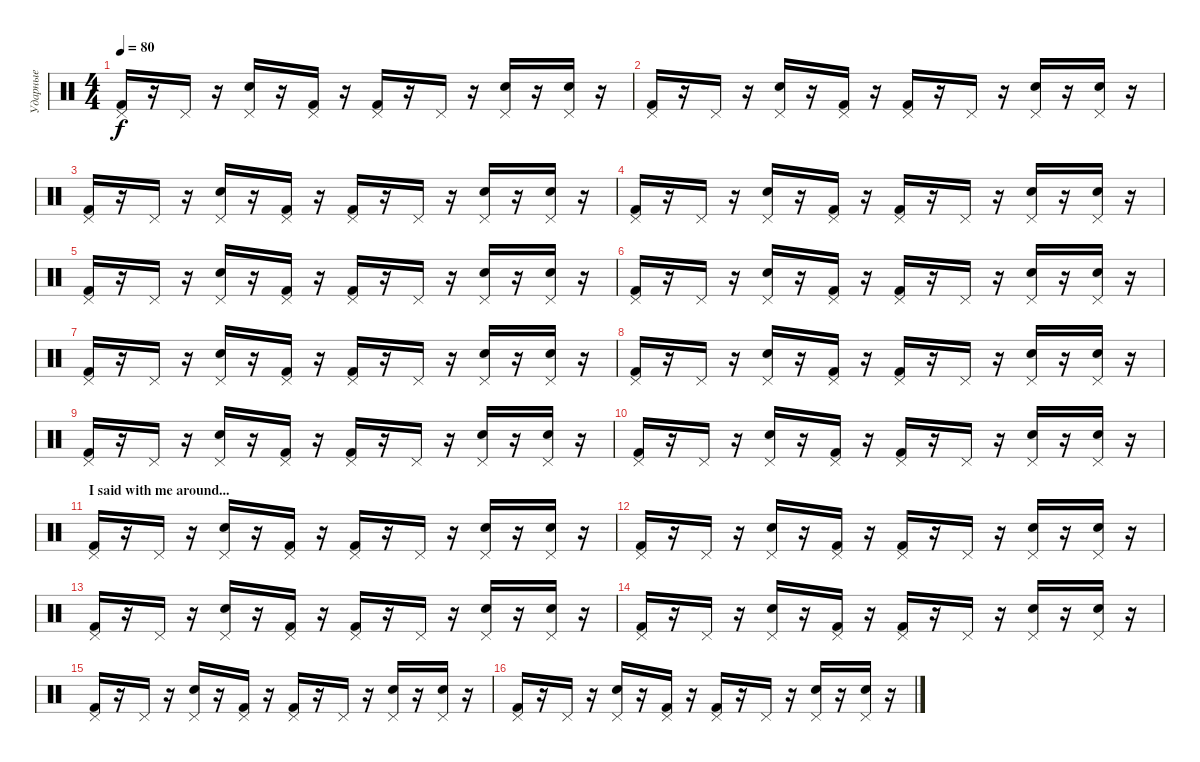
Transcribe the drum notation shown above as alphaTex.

\track ("Ударные" "Ударные") {instrument percussion}
\staff {score}
\articulation defaults
\ts (4 4)
\tempo 80
\clef neutral
\ks c
("Pedal Hi-Hat (hit)" "Kick (hit) 2").16{dy f} r.16 "Pedal Hi-Hat (hit)".16 r.16 ("Pedal Hi-Hat (hit)" "Snare (hit) 2").16 r.16 ("Pedal Hi-Hat (hit)" "Kick (hit) 2").16 r.16 ("Pedal Hi-Hat (hit)" "Kick (hit) 2").16 r.16 "Pedal Hi-Hat (hit)".16 r.16 ("Pedal Hi-Hat (hit)" "Snare (hit) 2").16 r.16 ("Pedal Hi-Hat (hit)" "Snare (hit) 2").16 r.16 |
("Pedal Hi-Hat (hit)" "Kick (hit) 2").16 r.16 "Pedal Hi-Hat (hit)".16 r.16 ("Pedal Hi-Hat (hit)" "Snare (hit) 2").16 r.16 ("Pedal Hi-Hat (hit)" "Kick (hit) 2").16 r.16 ("Pedal Hi-Hat (hit)" "Kick (hit) 2").16 r.16 "Pedal Hi-Hat (hit)".16 r.16 ("Pedal Hi-Hat (hit)" "Snare (hit) 2").16 r.16 ("Pedal Hi-Hat (hit)" "Snare (hit) 2").16 r.16 |
("Pedal Hi-Hat (hit)" "Kick (hit) 2").16 r.16 "Pedal Hi-Hat (hit)".16 r.16 ("Pedal Hi-Hat (hit)" "Snare (hit) 2").16 r.16 ("Pedal Hi-Hat (hit)" "Kick (hit) 2").16 r.16 ("Pedal Hi-Hat (hit)" "Kick (hit) 2").16 r.16 "Pedal Hi-Hat (hit)".16 r.16 ("Pedal Hi-Hat (hit)" "Snare (hit) 2").16 r.16 ("Pedal Hi-Hat (hit)" "Snare (hit) 2").16 r.16 |
("Pedal Hi-Hat (hit)" "Kick (hit) 2").16 r.16 "Pedal Hi-Hat (hit)".16 r.16 ("Pedal Hi-Hat (hit)" "Snare (hit) 2").16 r.16 ("Pedal Hi-Hat (hit)" "Kick (hit) 2").16 r.16 ("Pedal Hi-Hat (hit)" "Kick (hit) 2").16 r.16 "Pedal Hi-Hat (hit)".16 r.16 ("Pedal Hi-Hat (hit)" "Snare (hit) 2").16 r.16 ("Pedal Hi-Hat (hit)" "Snare (hit) 2").16 r.16 |
("Pedal Hi-Hat (hit)" "Kick (hit) 2").16 r.16 "Pedal Hi-Hat (hit)".16 r.16 ("Pedal Hi-Hat (hit)" "Snare (hit) 2").16 r.16 ("Pedal Hi-Hat (hit)" "Kick (hit) 2").16 r.16 ("Pedal Hi-Hat (hit)" "Kick (hit) 2").16 r.16 "Pedal Hi-Hat (hit)".16 r.16 ("Pedal Hi-Hat (hit)" "Snare (hit) 2").16 r.16 ("Pedal Hi-Hat (hit)" "Snare (hit) 2").16 r.16 |
("Pedal Hi-Hat (hit)" "Kick (hit) 2").16 r.16 "Pedal Hi-Hat (hit)".16 r.16 ("Pedal Hi-Hat (hit)" "Snare (hit) 2").16 r.16 ("Pedal Hi-Hat (hit)" "Kick (hit) 2").16 r.16 ("Pedal Hi-Hat (hit)" "Kick (hit) 2").16 r.16 "Pedal Hi-Hat (hit)".16 r.16 ("Pedal Hi-Hat (hit)" "Snare (hit) 2").16 r.16 ("Pedal Hi-Hat (hit)" "Snare (hit) 2").16 r.16 |
("Pedal Hi-Hat (hit)" "Kick (hit) 2").16 r.16 "Pedal Hi-Hat (hit)".16 r.16 ("Pedal Hi-Hat (hit)" "Snare (hit) 2").16 r.16 ("Pedal Hi-Hat (hit)" "Kick (hit) 2").16 r.16 ("Pedal Hi-Hat (hit)" "Kick (hit) 2").16 r.16 "Pedal Hi-Hat (hit)".16 r.16 ("Pedal Hi-Hat (hit)" "Snare (hit) 2").16 r.16 ("Pedal Hi-Hat (hit)" "Snare (hit) 2").16 r.16 |
("Pedal Hi-Hat (hit)" "Kick (hit) 2").16 r.16 "Pedal Hi-Hat (hit)".16 r.16 ("Pedal Hi-Hat (hit)" "Snare (hit) 2").16 r.16 ("Pedal Hi-Hat (hit)" "Kick (hit) 2").16 r.16 ("Pedal Hi-Hat (hit)" "Kick (hit) 2").16 r.16 "Pedal Hi-Hat (hit)".16 r.16 ("Pedal Hi-Hat (hit)" "Snare (hit) 2").16 r.16 ("Pedal Hi-Hat (hit)" "Snare (hit) 2").16 r.16 |
("Pedal Hi-Hat (hit)" "Kick (hit) 2").16 r.16 "Pedal Hi-Hat (hit)".16 r.16 ("Pedal Hi-Hat (hit)" "Snare (hit) 2").16 r.16 ("Pedal Hi-Hat (hit)" "Kick (hit) 2").16 r.16 ("Pedal Hi-Hat (hit)" "Kick (hit) 2").16 r.16 "Pedal Hi-Hat (hit)".16 r.16 ("Pedal Hi-Hat (hit)" "Snare (hit) 2").16 r.16 ("Pedal Hi-Hat (hit)" "Snare (hit) 2").16 r.16 |
("Pedal Hi-Hat (hit)" "Kick (hit) 2").16 r.16 "Pedal Hi-Hat (hit)".16 r.16 ("Pedal Hi-Hat (hit)" "Snare (hit) 2").16 r.16 ("Pedal Hi-Hat (hit)" "Kick (hit) 2").16 r.16 ("Pedal Hi-Hat (hit)" "Kick (hit) 2").16 r.16 "Pedal Hi-Hat (hit)".16 r.16 ("Pedal Hi-Hat (hit)" "Snare (hit) 2").16 r.16 ("Pedal Hi-Hat (hit)" "Snare (hit) 2").16 r.16 |
\section ("" "I said with me around...")
("Pedal Hi-Hat (hit)" "Kick (hit) 2").16 r.16 "Pedal Hi-Hat (hit)".16 r.16 ("Pedal Hi-Hat (hit)" "Snare (hit) 2").16 r.16 ("Pedal Hi-Hat (hit)" "Kick (hit) 2").16 r.16 ("Pedal Hi-Hat (hit)" "Kick (hit) 2").16 r.16 "Pedal Hi-Hat (hit)".16 r.16 ("Pedal Hi-Hat (hit)" "Snare (hit) 2").16 r.16 ("Pedal Hi-Hat (hit)" "Snare (hit) 2").16 r.16 |
("Pedal Hi-Hat (hit)" "Kick (hit) 2").16 r.16 "Pedal Hi-Hat (hit)".16 r.16 ("Pedal Hi-Hat (hit)" "Snare (hit) 2").16 r.16 ("Pedal Hi-Hat (hit)" "Kick (hit) 2").16 r.16 ("Pedal Hi-Hat (hit)" "Kick (hit) 2").16 r.16 "Pedal Hi-Hat (hit)".16 r.16 ("Pedal Hi-Hat (hit)" "Snare (hit) 2").16 r.16 ("Pedal Hi-Hat (hit)" "Snare (hit) 2").16 r.16 |
("Pedal Hi-Hat (hit)" "Kick (hit) 2").16 r.16 "Pedal Hi-Hat (hit)".16 r.16 ("Pedal Hi-Hat (hit)" "Snare (hit) 2").16 r.16 ("Pedal Hi-Hat (hit)" "Kick (hit) 2").16 r.16 ("Pedal Hi-Hat (hit)" "Kick (hit) 2").16 r.16 "Pedal Hi-Hat (hit)".16 r.16 ("Pedal Hi-Hat (hit)" "Snare (hit) 2").16 r.16 ("Pedal Hi-Hat (hit)" "Snare (hit) 2").16 r.16 |
("Pedal Hi-Hat (hit)" "Kick (hit) 2").16 r.16 "Pedal Hi-Hat (hit)".16 r.16 ("Pedal Hi-Hat (hit)" "Snare (hit) 2").16 r.16 ("Pedal Hi-Hat (hit)" "Kick (hit) 2").16 r.16 ("Pedal Hi-Hat (hit)" "Kick (hit) 2").16 r.16 "Pedal Hi-Hat (hit)".16 r.16 ("Pedal Hi-Hat (hit)" "Snare (hit) 2").16 r.16 ("Pedal Hi-Hat (hit)" "Snare (hit) 2").16 r.16 |
("Pedal Hi-Hat (hit)" "Kick (hit) 2").16 r.16 "Pedal Hi-Hat (hit)".16 r.16 ("Pedal Hi-Hat (hit)" "Snare (hit) 2").16 r.16 ("Pedal Hi-Hat (hit)" "Kick (hit) 2").16 r.16 ("Pedal Hi-Hat (hit)" "Kick (hit) 2").16 r.16 "Pedal Hi-Hat (hit)".16 r.16 ("Pedal Hi-Hat (hit)" "Snare (hit) 2").16 r.16 ("Pedal Hi-Hat (hit)" "Snare (hit) 2").16 r.16 |
("Pedal Hi-Hat (hit)" "Kick (hit) 2").16 r.16 "Pedal Hi-Hat (hit)".16 r.16 ("Pedal Hi-Hat (hit)" "Snare (hit) 2").16 r.16 ("Pedal Hi-Hat (hit)" "Kick (hit) 2").16 r.16 ("Pedal Hi-Hat (hit)" "Kick (hit) 2").16 r.16 "Pedal Hi-Hat (hit)".16 r.16 ("Pedal Hi-Hat (hit)" "Snare (hit) 2").16 r.16 ("Pedal Hi-Hat (hit)" "Snare (hit) 2").16 r.16
